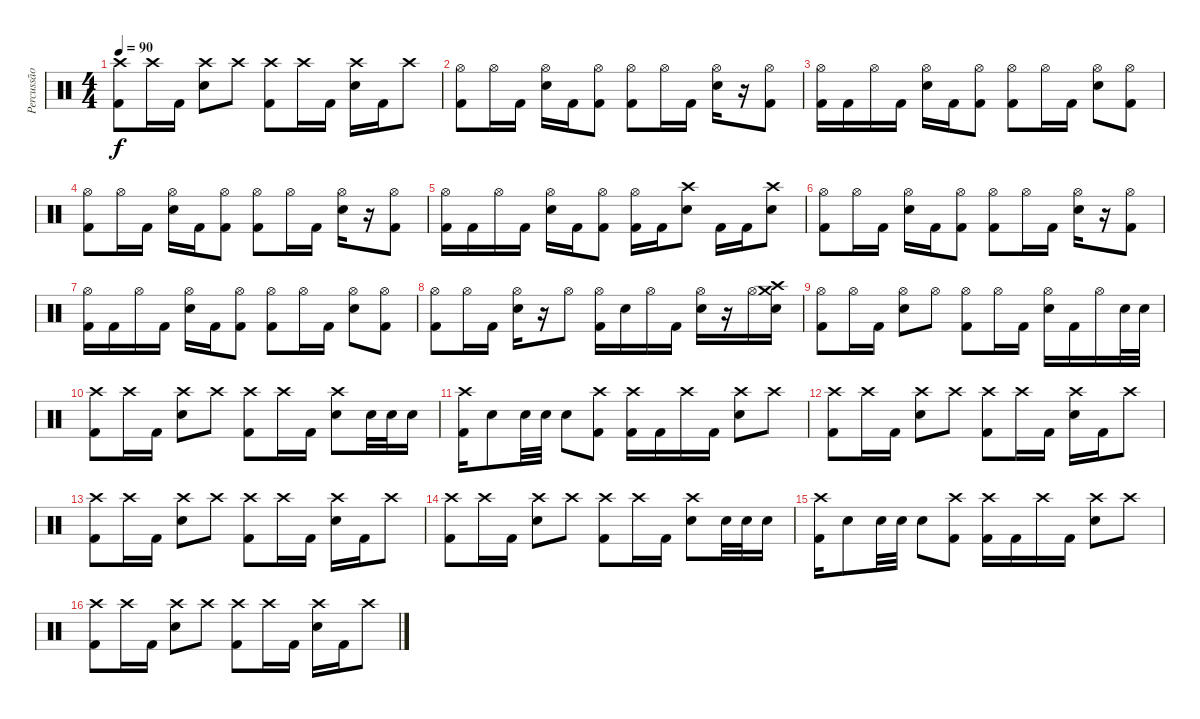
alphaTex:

\track ("Percussão" "Percussão") {instrument percussion}
\staff {score}
\articulation defaults
\ts (4 4)
\tempo 90
\clef neutral
\ks c
("Crash high (hit)" "Kick (hit) 2").8{dy f} "Crash high (hit)".16 "Kick (hit) 2".16 ("Crash high (hit)" "Electric Snare (hit)").8 "Crash high (hit)".8 ("Crash high (hit)" "Kick (hit) 2").8 "Crash high (hit)".16 "Kick (hit) 2".16 ("Crash high (hit)" "Electric Snare (hit)").16 "Kick (hit) 2".16 "Crash high (hit)".8 |
("Hi-Hat (open)" "Kick (hit) 2").8 "Hi-Hat (open)".16 "Kick (hit) 2".16 ("Hi-Hat (open)" "Electric Snare (hit)").16 "Kick (hit) 2".16 ("Hi-Hat (open)" "Kick (hit) 2").8 ("Hi-Hat (open)" "Kick (hit) 2").8 "Hi-Hat (open)".16 "Kick (hit) 2".16 ("Hi-Hat (open)" "Electric Snare (hit)").16 r.16 ("Hi-Hat (open)" "Kick (hit) 2").8 |
("Hi-Hat (open)" "Kick (hit) 2").16 "Kick (hit) 2".16 "Hi-Hat (open)".16 "Kick (hit) 2".16 ("Hi-Hat (open)" "Electric Snare (hit)").16 "Kick (hit) 2".16 ("Hi-Hat (open)" "Kick (hit) 2").8 ("Hi-Hat (open)" "Kick (hit) 2").8 "Hi-Hat (open)".16 "Kick (hit) 2".16 ("Hi-Hat (open)" "Electric Snare (hit)").8 ("Hi-Hat (open)" "Kick (hit) 2").8 |
("Hi-Hat (open)" "Kick (hit) 2").8 "Hi-Hat (open)".16 "Kick (hit) 2".16 ("Hi-Hat (open)" "Electric Snare (hit)").16 "Kick (hit) 2".16 ("Hi-Hat (open)" "Kick (hit) 2").8 ("Hi-Hat (open)" "Kick (hit) 2").8 "Hi-Hat (open)".16 "Kick (hit) 2".16 ("Hi-Hat (open)" "Electric Snare (hit)").16 r.16 ("Hi-Hat (open)" "Kick (hit) 2").8 |
("Hi-Hat (open)" "Kick (hit) 2").16 "Kick (hit) 2".16 "Hi-Hat (open)".16 "Kick (hit) 2".16 ("Hi-Hat (open)" "Electric Snare (hit)").16 "Kick (hit) 2".16 ("Hi-Hat (open)" "Kick (hit) 2").8 ("Hi-Hat (open)" "Kick (hit) 2").16 "Kick (hit) 2".16 ("Crash high (hit)" "Electric Snare (hit)").8 "Kick (hit) 2".16 "Kick (hit) 2".16 ("Crash high (hit)" "Electric Snare (hit)").8 |
("Hi-Hat (open)" "Kick (hit) 2").8 "Hi-Hat (open)".16 "Kick (hit) 2".16 ("Hi-Hat (open)" "Electric Snare (hit)").16 "Kick (hit) 2".16 ("Hi-Hat (open)" "Kick (hit) 2").8 ("Hi-Hat (open)" "Kick (hit) 2").8 "Hi-Hat (open)".16 "Kick (hit) 2".16 ("Hi-Hat (open)" "Electric Snare (hit)").16 r.16 ("Hi-Hat (open)" "Kick (hit) 2").8 |
("Hi-Hat (open)" "Kick (hit) 2").16 "Kick (hit) 2".16 "Hi-Hat (open)".16 "Kick (hit) 2".16 ("Hi-Hat (open)" "Electric Snare (hit)").16 "Kick (hit) 2".16 ("Hi-Hat (open)" "Kick (hit) 2").8 ("Hi-Hat (open)" "Kick (hit) 2").8 "Hi-Hat (open)".16 "Kick (hit) 2".16 ("Hi-Hat (open)" "Electric Snare (hit)").8 ("Hi-Hat (open)" "Kick (hit) 2").8 |
("Hi-Hat (open)" "Kick (hit) 2").8 "Hi-Hat (open)".16 "Kick (hit) 2".16 ("Hi-Hat (open)" "Electric Snare (hit)").16 r.16 "Hi-Hat (open)".8 ("Hi-Hat (open)" "Kick (hit) 2").16 "Electric Snare (hit)".16 "Hi-Hat (open)".16 "Kick (hit) 2".16 ("Hi-Hat (open)" "Electric Snare (hit)").16 r.16 "Hi-Hat (open)".16 ("Crash medium (hit)" "Crash high (hit)" "Electric Snare (hit)").16 |
("Hi-Hat (open)" "Kick (hit) 2").8 "Hi-Hat (open)".16 "Kick (hit) 2".16 ("Hi-Hat (open)" "Electric Snare (hit)").8 "Hi-Hat (open)".8 ("Hi-Hat (open)" "Kick (hit) 2").8 "Hi-Hat (open)".16 "Kick (hit) 2".16 ("Hi-Hat (open)" "Electric Snare (hit)").16 "Kick (hit) 2".16 "Hi-Hat (open)".16 "Electric Snare (hit)".32 "Electric Snare (hit)".32 |
("Crash high (hit)" "Kick (hit) 2").8 "Crash high (hit)".16 "Kick (hit) 2".16 ("Crash high (hit)" "Electric Snare (hit)").8 "Crash high (hit)".8 ("Crash high (hit)" "Kick (hit) 2").8 "Crash high (hit)".16 "Kick (hit) 2".16 ("Crash high (hit)" "Electric Snare (hit)").8 "Electric Snare (hit)".32 "Electric Snare (hit)".32 "Electric Snare (hit)".16 |
("Crash high (hit)" "Kick (hit) 2").16 "Electric Snare (hit)".8 "Electric Snare (hit)".32 "Electric Snare (hit)".32 "Electric Snare (hit)".8 ("Crash high (hit)" "Kick (hit) 2").8 ("Crash high (hit)" "Kick (hit) 2").16 "Kick (hit) 2".16 "Crash high (hit)".16 "Kick (hit) 2".16 ("Crash high (hit)" "Electric Snare (hit)").8 "Crash high (hit)".8 |
("Crash high (hit)" "Kick (hit) 2").8 "Crash high (hit)".16 "Kick (hit) 2".16 ("Crash high (hit)" "Electric Snare (hit)").8 "Crash high (hit)".8 ("Crash high (hit)" "Kick (hit) 2").8 "Crash high (hit)".16 "Kick (hit) 2".16 ("Crash high (hit)" "Electric Snare (hit)").16 "Kick (hit) 2".16 "Crash high (hit)".8 |
("Crash high (hit)" "Kick (hit) 2").8 "Crash high (hit)".16 "Kick (hit) 2".16 ("Crash high (hit)" "Electric Snare (hit)").8 "Crash high (hit)".8 ("Crash high (hit)" "Kick (hit) 2").8 "Crash high (hit)".16 "Kick (hit) 2".16 ("Crash high (hit)" "Electric Snare (hit)").16 "Kick (hit) 2".16 "Crash high (hit)".8 |
("Crash high (hit)" "Kick (hit) 2").8 "Crash high (hit)".16 "Kick (hit) 2".16 ("Crash high (hit)" "Electric Snare (hit)").8 "Crash high (hit)".8 ("Crash high (hit)" "Kick (hit) 2").8 "Crash high (hit)".16 "Kick (hit) 2".16 ("Crash high (hit)" "Electric Snare (hit)").8 "Electric Snare (hit)".32 "Electric Snare (hit)".32 "Electric Snare (hit)".16 |
("Crash high (hit)" "Kick (hit) 2").16 "Electric Snare (hit)".8 "Electric Snare (hit)".32 "Electric Snare (hit)".32 "Electric Snare (hit)".8 ("Crash high (hit)" "Kick (hit) 2").8 ("Crash high (hit)" "Kick (hit) 2").16 "Kick (hit) 2".16 "Crash high (hit)".16 "Kick (hit) 2".16 ("Crash high (hit)" "Electric Snare (hit)").8 "Crash high (hit)".8 |
("Crash high (hit)" "Kick (hit) 2").8 "Crash high (hit)".16 "Kick (hit) 2".16 ("Crash high (hit)" "Electric Snare (hit)").8 "Crash high (hit)".8 ("Crash high (hit)" "Kick (hit) 2").8 "Crash high (hit)".16 "Kick (hit) 2".16 ("Crash high (hit)" "Electric Snare (hit)").16 "Kick (hit) 2".16 "Crash high (hit)".8
